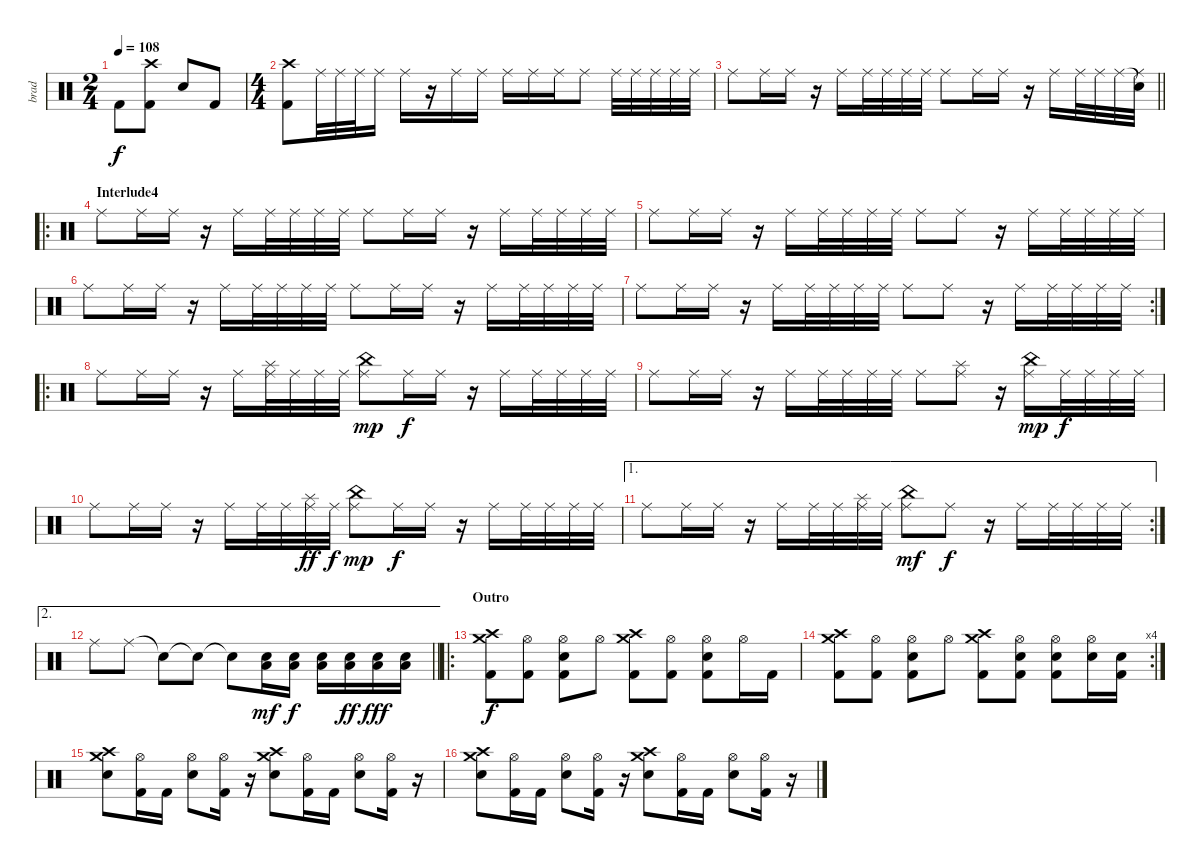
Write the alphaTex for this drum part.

\track ("brad" "brad") {instrument percussion}
\staff {score}
\articulation defaults
\ts (2 4)
\tempo 108
\clef neutral
\ks c "Kick (hit) 2".8{dy f}
("Crash high (hit)" "Kick (hit) 2").8 "Electric Snare (hit)".8 "Kick (hit) 2".8 |
\ts (4 4)
("Crash high (hit)" "Kick (hit) 2").8 "Ride (middle)".32 "Ride (middle)".32 "Ride (middle)".32 "Ride (middle)".16 "Ride (middle)".16 r.16 "Ride (middle)".16 "Ride (middle)".16 "Ride (middle)".16 "Ride (middle)".16 "Ride (middle)".16 "Ride (middle)".8 "Ride (middle)".32 "Ride (middle)".32 "Ride (middle)".32 "Ride (middle)".32 "Ride (middle)".32 |
\barLineRight lightlight "Ride (middle)".8 "Ride (middle)".16 "Ride (middle)".16
r.16 "Ride (middle)".16 "Ride (middle)".32 "Ride (middle)".32 "Ride (middle)".32 "Ride (middle)".32 "Ride (middle)".8 "Ride (middle)".16 "Ride (middle)".16 r.16 "Ride (middle)".16 "Ride (middle)".32 "Ride (middle)".32 "Ride (middle)".32 ("Snare (hit)"{t} "Ride (middle)").32 |
\ro
\section ("" "Interlude4")
"Ride (middle)".8 "Ride (middle)".16 "Ride (middle)".16 r.16 "Ride (middle)".16 "Ride (middle)".32 "Ride (middle)".32 "Ride (middle)".32 "Ride (middle)".32 "Ride (middle)".8 "Ride (middle)".16 "Ride (middle)".16 r.16 "Ride (middle)".16 "Ride (middle)".32 "Ride (middle)".32 "Ride (middle)".32 "Ride (middle)".32 |
"Ride (middle)".8 "Ride (middle)".16 "Ride (middle)".16 r.16 "Ride (middle)".16 "Ride (middle)".32 "Ride (middle)".32 "Ride (middle)".32 "Ride (middle)".32 "Ride (middle)".8 "Ride (middle)".8 r.16 "Ride (middle)".16 "Ride (middle)".32 "Ride (middle)".32 "Ride (middle)".32 "Ride (middle)".32 |
"Ride (middle)".8 "Ride (middle)".16 "Ride (middle)".16 r.16 "Ride (middle)".16 "Ride (middle)".32 "Ride (middle)".32 "Ride (middle)".32 "Ride (middle)".32 "Ride (middle)".8 "Ride (middle)".16 "Ride (middle)".16 r.16 "Ride (middle)".16 "Ride (middle)".32 "Ride (middle)".32 "Ride (middle)".32 "Ride (middle)".32 |
\rc 2 "Ride (middle)".8 "Ride (middle)".16 "Ride (middle)".16
r.16 "Ride (middle)".16 "Ride (middle)".32 "Ride (middle)".32 "Ride (middle)".32 "Ride (middle)".32 "Ride (middle)".8 "Ride (middle)".8 r.16 "Ride (middle)".16 "Ride (middle)".32 "Ride (middle)".32 "Ride (middle)".32 "Ride (middle)".32 |
\ro "Ride (middle)".8 "Ride (middle)".16 "Ride (middle)".16
r.16 "Ride (middle)".16 ("Splash (hit)" "Ride (middle)").32 "Ride (middle)".32 "Ride (middle)".32 "Ride (middle)".32 ("China (hit)" "Ride (middle)").8{dy mp} "Ride (middle)".16{dy f} "Ride (middle)".16 r.16 "Ride (middle)".16 "Ride (middle)".32 "Ride (middle)".32 "Ride (middle)".32 "Ride (middle)".32 |
"Ride (middle)".8 "Ride (middle)".16 "Ride (middle)".16 r.16 "Ride (middle)".16 "Ride (middle)".32 "Ride (middle)".32 "Ride (middle)".32 "Ride (middle)".32 "Ride (middle)".8 ("Splash (hit)" "Ride (middle)").8 r.16 ("China (hit)" "Ride (middle)").16{dy mp} "Ride (middle)".32{dy f} "Ride (middle)".32 "Ride (middle)".32 "Ride (middle)".32 |
"Ride (middle)".8 "Ride (middle)".16 "Ride (middle)".16 r.16 "Ride (middle)".16 "Ride (middle)".32 "Ride (middle)".32 ("Splash (hit)" "Ride (middle)").32{dy ff} "Ride (middle)".32{dy f} ("China (hit)" "Ride (middle)").8{dy mp} "Ride (middle)".16{dy f} "Ride (middle)".16 r.16 "Ride (middle)".16 "Ride (middle)".32 "Ride (middle)".32 "Ride (middle)".32 "Ride (middle)".32 |
\ae 1
\rc 2 "Ride (middle)".8 "Ride (middle)".16 "Ride (middle)".16
r.16 "Ride (middle)".16 "Ride (middle)".32 "Ride (middle)".32 ("Splash (hit)" "Ride (middle)").32 "Ride (middle)".32 ("China (hit)" "Ride (middle)").8{dy mf} "Ride (middle)".8{dy f} r.16 "Ride (middle)".16 "Ride (middle)".32 "Ride (middle)".32 "Ride (middle)".32 "Ride (middle)".32 |
\ae 2
\barLineRight lightlight "Ride (middle)".8 "Ride (middle)".8 "Snare (hit)"{t}.8 "Snare (hit)"{t}.8 "Snare (hit)"{t}.8
("Electric Snare (hit)" "Low Floor Tom (hit)").16{dy mf} ("Electric Snare (hit)" "Low Floor Tom (hit)").16{dy f} ("Electric Snare (hit)" "Low Floor Tom (hit)").16 ("Electric Snare (hit)" "Low Floor Tom (hit)").16{dy ff} ("Electric Snare (hit)" "Low Floor Tom (hit)").16{dy fff} ("Electric Snare (hit)" "Low Floor Tom (hit)").16 |
\ro
\section ("" "Outro")
("Crash medium (hit)" "Crash high (hit)" "Kick (hit) 2").8{dy f} ("Hi-Hat (open)" "Kick (hit) 2").8 ("Hi-Hat (open)" "Electric Snare (hit)" "Kick (hit) 2").8 "Hi-Hat (open)".8 ("Crash high (hit)" "Crash medium (hit)" "Kick (hit) 2").8 ("Hi-Hat (open)" "Kick (hit) 2").8 ("Hi-Hat (open)" "Electric Snare (hit)" "Kick (hit) 2").8 "Hi-Hat (open)".16 "Kick (hit) 2".16 |
\rc 4
("Crash medium (hit)" "Crash high (hit)" "Kick (hit) 2").8 ("Hi-Hat (open)" "Kick (hit) 2").8 ("Hi-Hat (open)" "Electric Snare (hit)" "Kick (hit) 2").8 "Hi-Hat (open)".8 ("Crash high (hit)" "Crash medium (hit)" "Kick (hit) 2").8 ("Hi-Hat (open)" "Electric Snare (hit)" "Kick (hit) 2").8 ("Hi-Hat (open)" "Electric Snare (hit)" "Kick (hit) 2").8 ("Hi-Hat (open)" "Electric Snare (hit)").16 ("Electric Snare (hit)" "Kick (hit) 2").16 |
("Crash high (hit)" "Crash medium (hit)" "Electric Snare (hit)").8 ("Hi-Hat (open)" "Kick (hit) 2").16 "Kick (hit) 2".16 ("Hi-Hat (open)" "Electric Snare (hit)").8 ("Hi-Hat (open)" "Kick (hit) 2").16 r.16 ("Crash high (hit)" "Crash medium (hit)" "Electric Snare (hit)").8 ("Hi-Hat (open)" "Kick (hit) 2").16 "Kick (hit) 2".16 ("Hi-Hat (open)" "Electric Snare (hit)").8 ("Hi-Hat (open)" "Kick (hit) 2").16 r.16 |
("Crash high (hit)" "Crash medium (hit)" "Electric Snare (hit)").8 ("Hi-Hat (open)" "Kick (hit) 2").16 "Kick (hit) 2".16 ("Hi-Hat (open)" "Electric Snare (hit)").8 ("Hi-Hat (open)" "Kick (hit) 2").16 r.16 ("Crash high (hit)" "Crash medium (hit)" "Electric Snare (hit)").8 ("Hi-Hat (open)" "Kick (hit) 2").16 "Kick (hit) 2".16 ("Hi-Hat (open)" "Electric Snare (hit)").8 ("Hi-Hat (open)" "Kick (hit) 2").16 r.16
